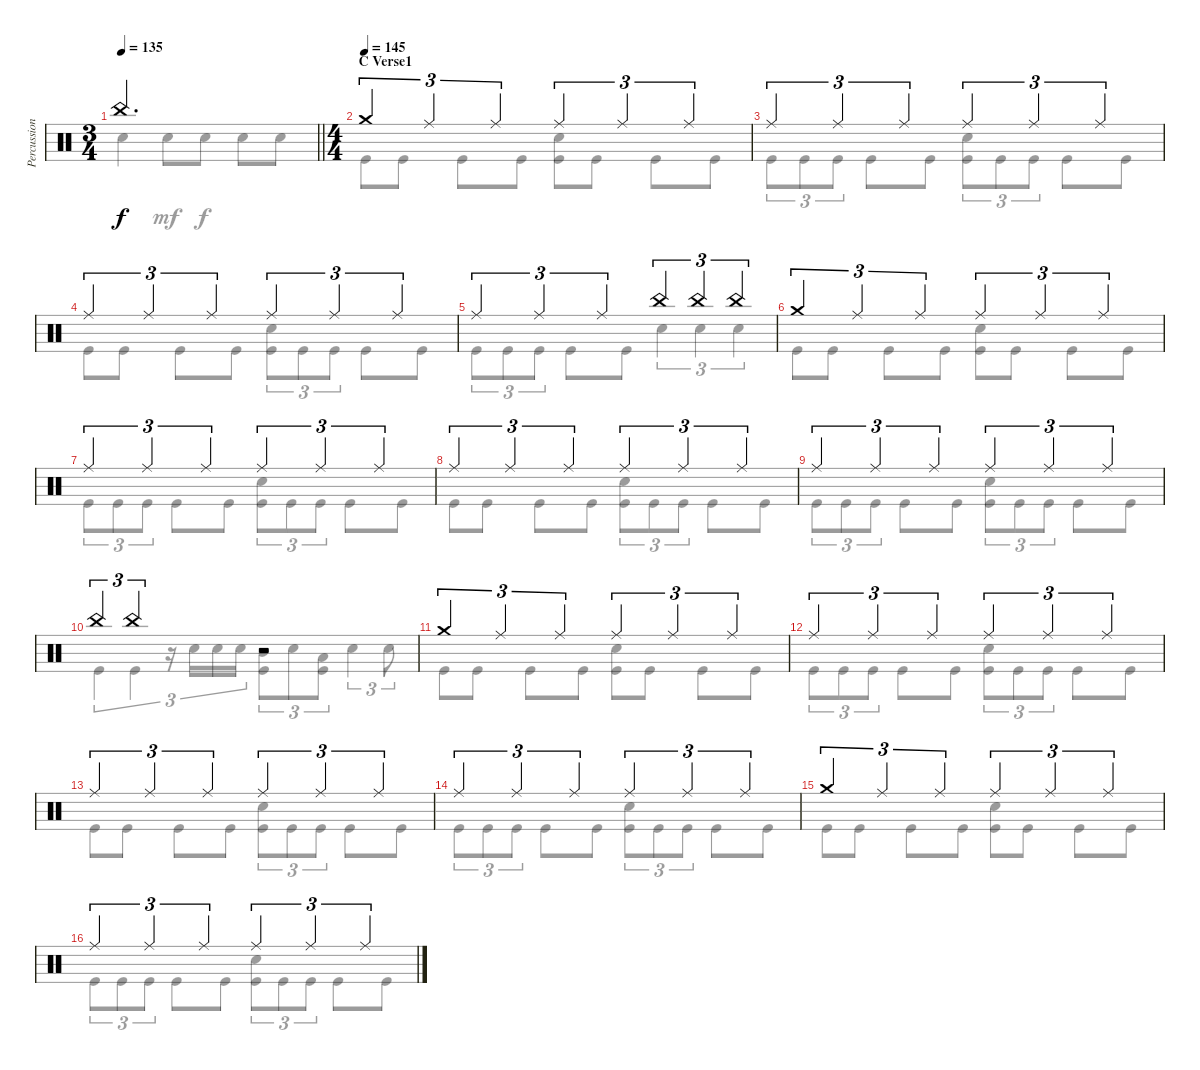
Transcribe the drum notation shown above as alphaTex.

\track ("Percussions" "Percussion") {instrument percussion}
\staff {score}
\articulation defaults
\voice
\ts (3 4)
\tempo 135
\clef neutral
\barLineRight lightlight
\ks c "China (hit)".2{d dy f}
|
\ts (4 4)
\section ("" "C Verse1")
\tempo (145)
"Crash medium (hit)".4{tu (3 2)} "Ride (middle)".4{tu (3 2)} "Ride (middle)".4{tu (3 2)} "Ride (middle)".4{tu (3 2)} "Ride (middle)".4{tu (3 2)} "Ride (middle)".4{tu (3 2)} |
"Ride (middle)".4{tu (3 2)} "Ride (middle)".4{tu (3 2)} "Ride (middle)".4{tu (3 2)} "Ride (middle)".4{tu (3 2)} "Ride (middle)".4{tu (3 2)} "Ride (middle)".4{tu (3 2)} |
"Ride (middle)".4{tu (3 2)} "Ride (middle)".4{tu (3 2)} "Ride (middle)".4{tu (3 2)} "Ride (middle)".4{tu (3 2)} "Ride (middle)".4{tu (3 2)} "Ride (middle)".4{tu (3 2)} |
"Ride (middle)".4{tu (3 2)} "Ride (middle)".4{tu (3 2)} "Ride (middle)".4{tu (3 2)} "China (hit)".4{tu (3 2)} "China (hit)".4{tu (3 2)} "China (hit)".4{tu (3 2)} |
"Crash medium (hit)".4{tu (3 2)} "Ride (middle)".4{tu (3 2)} "Ride (middle)".4{tu (3 2)} "Ride (middle)".4{tu (3 2)} "Ride (middle)".4{tu (3 2)} "Ride (middle)".4{tu (3 2)} |
"Ride (middle)".4{tu (3 2)} "Ride (middle)".4{tu (3 2)} "Ride (middle)".4{tu (3 2)} "Ride (middle)".4{tu (3 2)} "Ride (middle)".4{tu (3 2)} "Ride (middle)".4{tu (3 2)} |
"Ride (middle)".4{tu (3 2)} "Ride (middle)".4{tu (3 2)} "Ride (middle)".4{tu (3 2)} "Ride (middle)".4{tu (3 2)} "Ride (middle)".4{tu (3 2)} "Ride (middle)".4{tu (3 2)} |
"Ride (middle)".4{tu (3 2)} "Ride (middle)".4{tu (3 2)} "Ride (middle)".4{tu (3 2)} "Ride (middle)".4{tu (3 2)} "Ride (middle)".4{tu (3 2)} "Ride (middle)".4{tu (3 2)} |
"China (hit)".4{tu (3 2)} "China (hit)".2{tu (3 2)} r.2 |
"Crash medium (hit)".4{tu (3 2)} "Ride (middle)".4{tu (3 2)} "Ride (middle)".4{tu (3 2)} "Ride (middle)".4{tu (3 2)} "Ride (middle)".4{tu (3 2)} "Ride (middle)".4{tu (3 2)} |
"Ride (middle)".4{tu (3 2)} "Ride (middle)".4{tu (3 2)} "Ride (middle)".4{tu (3 2)} "Ride (middle)".4{tu (3 2)} "Ride (middle)".4{tu (3 2)} "Ride (middle)".4{tu (3 2)} |
"Ride (middle)".4{tu (3 2)} "Ride (middle)".4{tu (3 2)} "Ride (middle)".4{tu (3 2)} "Ride (middle)".4{tu (3 2)} "Ride (middle)".4{tu (3 2)} "Ride (middle)".4{tu (3 2)} |
"Ride (middle)".4{tu (3 2)} "Ride (middle)".4{tu (3 2)} "Ride (middle)".4{tu (3 2)} "Ride (middle)".4{tu (3 2)} "Ride (middle)".4{tu (3 2)} "Ride (middle)".4{tu (3 2)} |
"Crash medium (hit)".4{tu (3 2)} "Ride (middle)".4{tu (3 2)} "Ride (middle)".4{tu (3 2)} "Ride (middle)".4{tu (3 2)} "Ride (middle)".4{tu (3 2)} "Ride (middle)".4{tu (3 2)} |
"Ride (middle)".4{tu (3 2)} "Ride (middle)".4{tu (3 2)} "Ride (middle)".4{tu (3 2)} "Ride (middle)".4{tu (3 2)} "Ride (middle)".4{tu (3 2)} "Ride (middle)".4{tu (3 2)}
\voice
\clef neutral
\ottava regular
\simile none
\barLineRight lightlight
\ks c "Snare (hit) 2".4{dy f} "Snare (hit) 2".8{dy mf} "Snare (hit) 2".8{dy f} "Snare (hit) 2".8 "Snare (hit) 2".8
|
"Kick (hit)".8 "Kick (hit)".8 "Kick (hit)".8 "Kick (hit)".8 ("Snare (hit) 2" "Kick (hit)").8 "Kick (hit)".8 "Kick (hit)".8 "Kick (hit)".8 |
"Kick (hit)".8{tu (3 2)} "Kick (hit)".8{tu (3 2)} "Kick (hit)".8{tu (3 2)} "Kick (hit)".8 "Kick (hit)".8 ("Snare (hit) 2" "Kick (hit)").8{tu (3 2)} "Kick (hit)".8{tu (3 2)} "Kick (hit)".8{tu (3 2)} "Kick (hit)".8 "Kick (hit)".8 |
"Kick (hit)".8 "Kick (hit)".8 "Kick (hit)".8 "Kick (hit)".8 ("Snare (hit) 2" "Kick (hit)").8{tu (3 2)} "Kick (hit)".8{tu (3 2)} "Kick (hit)".8{tu (3 2)} "Kick (hit)".8 "Kick (hit)".8 |
"Kick (hit)".8{tu (3 2)} "Kick (hit)".8{tu (3 2)} "Kick (hit)".8{tu (3 2)} "Kick (hit)".8 "Kick (hit)".8 "Snare (hit) 2".4{tu (3 2)} "Snare (hit) 2".4{tu (3 2)} "Snare (hit) 2".4{tu (3 2)} |
"Kick (hit)".8 "Kick (hit)".8 "Kick (hit)".8 "Kick (hit)".8 ("Snare (hit) 2" "Kick (hit)").8 "Kick (hit)".8 "Kick (hit)".8 "Kick (hit)".8 |
"Kick (hit)".8{tu (3 2)} "Kick (hit)".8{tu (3 2)} "Kick (hit)".8{tu (3 2)} "Kick (hit)".8 "Kick (hit)".8 ("Snare (hit) 2" "Kick (hit)").8{tu (3 2)} "Kick (hit)".8{tu (3 2)} "Kick (hit)".8{tu (3 2)} "Kick (hit)".8 "Kick (hit)".8 |
"Kick (hit)".8 "Kick (hit)".8 "Kick (hit)".8 "Kick (hit)".8 ("Snare (hit) 2" "Kick (hit)").8{tu (3 2)} "Kick (hit)".8{tu (3 2)} "Kick (hit)".8{tu (3 2)} "Kick (hit)".8 "Kick (hit)".8 |
"Kick (hit)".8{tu (3 2)} "Kick (hit)".8{tu (3 2)} "Kick (hit)".8{tu (3 2)} "Kick (hit)".8 "Kick (hit)".8 ("Snare (hit) 2" "Kick (hit)").8{tu (3 2)} "Kick (hit)".8{tu (3 2)} "Kick (hit)".8{tu (3 2)} "Kick (hit)".8 "Kick (hit)".8 |
"Kick (hit)".4{tu (3 2)} "Kick (hit)".4{tu (3 2)} r.16{tu (3 2)} "Snare (hit) 2".16{tu (3 2)} "Snare (hit) 2".16{tu (3 2)} "Snare (hit) 2".16{tu (3 2)} ("Mid Tom (hit)" "Kick (hit)").8{tu (3 2)} "Snare (hit) 2".8{tu (3 2)} ("Low Tom (hit)" "Kick (hit)").8{tu (3 2)} "Snare (hit) 2".4{tu (3 2)} "Snare (hit) 2".8{tu (3 2)} |
"Kick (hit)".8 "Kick (hit)".8 "Kick (hit)".8 "Kick (hit)".8 ("Snare (hit) 2" "Kick (hit)").8 "Kick (hit)".8 "Kick (hit)".8 "Kick (hit)".8 |
"Kick (hit)".8{tu (3 2)} "Kick (hit)".8{tu (3 2)} "Kick (hit)".8{tu (3 2)} "Kick (hit)".8 "Kick (hit)".8 ("Snare (hit) 2" "Kick (hit)").8{tu (3 2)} "Kick (hit)".8{tu (3 2)} "Kick (hit)".8{tu (3 2)} "Kick (hit)".8 "Kick (hit)".8 |
"Kick (hit)".8 "Kick (hit)".8 "Kick (hit)".8 "Kick (hit)".8 ("Snare (hit) 2" "Kick (hit)").8{tu (3 2)} "Kick (hit)".8{tu (3 2)} "Kick (hit)".8{tu (3 2)} "Kick (hit)".8 "Kick (hit)".8 |
"Kick (hit)".8{tu (3 2)} "Kick (hit)".8{tu (3 2)} "Kick (hit)".8{tu (3 2)} "Kick (hit)".8 "Kick (hit)".8 ("Snare (hit) 2" "Kick (hit)").8{tu (3 2)} "Kick (hit)".8{tu (3 2)} "Kick (hit)".8{tu (3 2)} "Kick (hit)".8 "Kick (hit)".8 |
"Kick (hit)".8 "Kick (hit)".8 "Kick (hit)".8 "Kick (hit)".8 ("Snare (hit) 2" "Kick (hit)").8 "Kick (hit)".8 "Kick (hit)".8 "Kick (hit)".8 |
"Kick (hit)".8{tu (3 2)} "Kick (hit)".8{tu (3 2)} "Kick (hit)".8{tu (3 2)} "Kick (hit)".8 "Kick (hit)".8 ("Snare (hit) 2" "Kick (hit)").8{tu (3 2)} "Kick (hit)".8{tu (3 2)} "Kick (hit)".8{tu (3 2)} "Kick (hit)".8 "Kick (hit)".8
